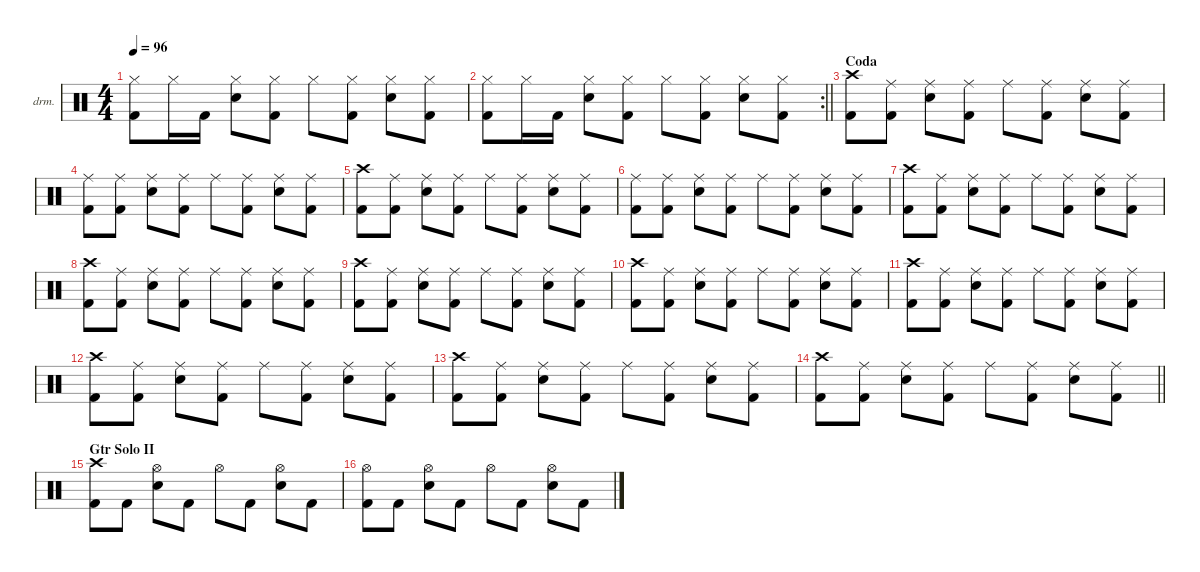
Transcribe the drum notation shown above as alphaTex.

\defaultSystemsLayout 4
\hideDynamics
\bracketExtendMode nobrackets
\firstSystemTrackNameOrientation horizontal
\otherSystemsTrackNameOrientation horizontal
\track ("Drums" "drm.") {instrument percussion}
\staff {score}
\articulation defaults
\ts (4 4)
\tempo 96
\clef neutral
\ks c
("Hi-Hat (closed)" "Kick (hit) 2").8{dy f} "Hi-Hat (closed)".16 "Kick (hit) 2".16 ("Hi-Hat (closed)" "Snare (hit) 2").8 ("Hi-Hat (closed)" "Kick (hit) 2").8 "Hi-Hat (closed)".8 ("Hi-Hat (closed)" "Kick (hit) 2").8 ("Hi-Hat (closed)" "Snare (hit) 2").8 ("Hi-Hat (closed)" "Kick (hit) 2").8 |
\rc 2
\barLineRight lightlight
("Hi-Hat (closed)" "Kick (hit) 2").8 "Hi-Hat (closed)".16 "Kick (hit) 2".16 ("Hi-Hat (closed)" "Snare (hit) 2").8 ("Hi-Hat (closed)" "Kick (hit) 2").8 "Hi-Hat (closed)".8 ("Hi-Hat (closed)" "Kick (hit) 2").8 ("Hi-Hat (closed)" "Snare (hit) 2").8 ("Hi-Hat (closed)" "Kick (hit) 2").8 |
\section ("" "Coda")
("Crash high (hit)" "Kick (hit) 2").8 ("Ride (middle)" "Kick (hit) 2").8 ("Ride (middle)" "Snare (hit) 2").8 ("Ride (middle)" "Kick (hit) 2").8 "Ride (middle)".8 ("Ride (middle)" "Kick (hit) 2").8 ("Ride (middle)" "Snare (hit) 2").8 ("Ride (middle)" "Kick (hit) 2").8 |
("Ride (middle)" "Kick (hit) 2").8 ("Ride (middle)" "Kick (hit) 2").8 ("Ride (middle)" "Snare (hit) 2").8 ("Ride (middle)" "Kick (hit) 2").8 "Ride (middle)".8 ("Ride (middle)" "Kick (hit) 2").8 ("Ride (middle)" "Snare (hit) 2").8 ("Ride (middle)" "Kick (hit) 2").8 |
("Crash high (hit)" "Kick (hit) 2").8 ("Ride (middle)" "Kick (hit) 2").8 ("Ride (middle)" "Snare (hit) 2").8 ("Ride (middle)" "Kick (hit) 2").8 "Ride (middle)".8 ("Ride (middle)" "Kick (hit) 2").8 ("Ride (middle)" "Snare (hit) 2").8 ("Ride (middle)" "Kick (hit) 2").8 |
("Ride (middle)" "Kick (hit) 2").8 ("Ride (middle)" "Kick (hit) 2").8 ("Ride (middle)" "Snare (hit) 2").8 ("Ride (middle)" "Kick (hit) 2").8 "Ride (middle)".8 ("Ride (middle)" "Kick (hit) 2").8 ("Ride (middle)" "Snare (hit) 2").8 ("Ride (middle)" "Kick (hit) 2").8 |
("Crash high (hit)" "Kick (hit) 2").8 ("Ride (middle)" "Kick (hit) 2").8 ("Ride (middle)" "Snare (hit) 2").8 ("Ride (middle)" "Kick (hit) 2").8 "Ride (middle)".8 ("Ride (middle)" "Kick (hit) 2").8 ("Ride (middle)" "Snare (hit) 2").8 ("Ride (middle)" "Kick (hit) 2").8 |
("Crash high (hit)" "Kick (hit) 2").8 ("Ride (middle)" "Kick (hit) 2").8 ("Ride (middle)" "Snare (hit) 2").8 ("Ride (middle)" "Kick (hit) 2").8 "Ride (middle)".8 ("Ride (middle)" "Kick (hit) 2").8 ("Ride (middle)" "Snare (hit) 2").8 ("Ride (middle)" "Kick (hit) 2").8 |
("Crash high (hit)" "Kick (hit) 2").8 ("Ride (middle)" "Kick (hit) 2").8 ("Ride (middle)" "Snare (hit) 2").8 ("Ride (middle)" "Kick (hit) 2").8 "Ride (middle)".8 ("Ride (middle)" "Kick (hit) 2").8 ("Ride (middle)" "Snare (hit) 2").8 ("Ride (middle)" "Kick (hit) 2").8 |
("Crash high (hit)" "Kick (hit) 2").8 ("Ride (middle)" "Kick (hit) 2").8 ("Ride (middle)" "Snare (hit) 2").8 ("Ride (middle)" "Kick (hit) 2").8 "Ride (middle)".8 ("Ride (middle)" "Kick (hit) 2").8 ("Ride (middle)" "Snare (hit) 2").8 ("Ride (middle)" "Kick (hit) 2").8 |
("Crash high (hit)" "Kick (hit) 2").8 ("Ride (middle)" "Kick (hit) 2").8 ("Ride (middle)" "Snare (hit) 2").8 ("Ride (middle)" "Kick (hit) 2").8 "Ride (middle)".8 ("Ride (middle)" "Kick (hit) 2").8 ("Ride (middle)" "Snare (hit) 2").8 ("Ride (middle)" "Kick (hit) 2").8 |
("Crash high (hit)" "Kick (hit) 2").8 ("Ride (middle)" "Kick (hit) 2").8 ("Ride (middle)" "Snare (hit) 2").8 ("Ride (middle)" "Kick (hit) 2").8 "Ride (middle)".8 ("Ride (middle)" "Kick (hit) 2").8 ("Ride (middle)" "Snare (hit) 2").8 ("Ride (middle)" "Kick (hit) 2").8 |
("Crash high (hit)" "Kick (hit) 2").8 ("Ride (middle)" "Kick (hit) 2").8 ("Ride (middle)" "Snare (hit) 2").8 ("Ride (middle)" "Kick (hit) 2").8 "Ride (middle)".8 ("Ride (middle)" "Kick (hit) 2").8 ("Ride (middle)" "Snare (hit) 2").8 ("Ride (middle)" "Kick (hit) 2").8 |
\barLineRight lightlight
("Crash high (hit)" "Kick (hit) 2").8 ("Ride (middle)" "Kick (hit) 2").8 ("Ride (middle)" "Snare (hit) 2").8 ("Ride (middle)" "Kick (hit) 2").8 "Ride (middle)".8 ("Ride (middle)" "Kick (hit) 2").8 ("Ride (middle)" "Snare (hit) 2").8 ("Ride (middle)" "Kick (hit) 2").8 |
\section ("" "Gtr Solo II")
("Crash high (hit)" "Kick (hit) 2").8 "Kick (hit) 2".8 ("Hi-Hat (open)" "Snare (hit) 2").8 "Kick (hit) 2".8 "Hi-Hat (open)".8 "Kick (hit) 2".8 ("Hi-Hat (open)" "Snare (hit) 2").8 "Kick (hit) 2".8 |
("Hi-Hat (open)" "Kick (hit) 2").8 "Kick (hit) 2".8 ("Hi-Hat (open)" "Snare (hit) 2").8 "Kick (hit) 2".8 "Hi-Hat (open)".8 "Kick (hit) 2".8 ("Hi-Hat (open)" "Snare (hit) 2").8 "Kick (hit) 2".8
